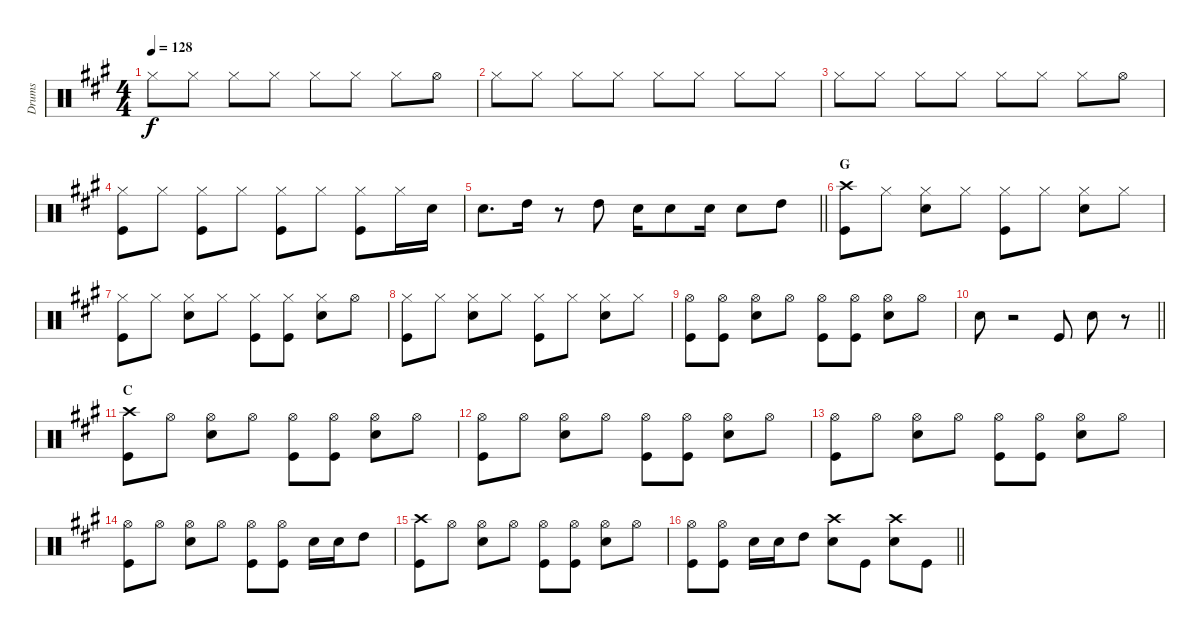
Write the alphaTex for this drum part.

\track ("Drums" "Drums") {instrument percussion}
\staff {score}
\articulation defaults
\ts (4 4)
\tempo 128
\clef neutral
\ks a "Hi-Hat (closed)".8{dy f} "Hi-Hat (closed)".8 "Hi-Hat (closed)".8 "Hi-Hat (closed)".8 "Hi-Hat (closed)".8 "Hi-Hat (closed)".8 "Hi-Hat (closed)".8 "Hi-Hat (open)".8
|
"Hi-Hat (closed)".8 "Hi-Hat (closed)".8 "Hi-Hat (closed)".8 "Hi-Hat (closed)".8 "Hi-Hat (closed)".8 "Hi-Hat (closed)".8 "Hi-Hat (closed)".8 "Hi-Hat (closed)".8 |
"Hi-Hat (closed)".8 "Hi-Hat (closed)".8 "Hi-Hat (closed)".8 "Hi-Hat (closed)".8 "Hi-Hat (closed)".8 "Hi-Hat (closed)".8 "Hi-Hat (closed)".8 "Hi-Hat (open)".8 |
("Hi-Hat (closed)" "Kick (hit)").8 "Hi-Hat (closed)".8 ("Hi-Hat (closed)" "Kick (hit)").8 "Hi-Hat (closed)".8 ("Hi-Hat (closed)" "Kick (hit)").8 "Hi-Hat (closed)".8 ("Hi-Hat (closed)" "Kick (hit)").8 "Hi-Hat (closed)".16 "Snare (hit) 2".16 |
\barLineRight lightlight "Snare (hit) 2".8{d} "High Tom (hit)".16
r.8 "High Tom (hit)".8 "Snare (hit) 2".16 "Snare (hit) 2".8 "Snare (hit) 2".16 "Snare (hit) 2".8 "High Tom (hit)".8 |
\section ("" "G")
("Crash high (hit)" "Kick (hit)").8 "Hi-Hat (closed)".8 ("Hi-Hat (closed)" "Snare (hit) 2").8 "Hi-Hat (closed)".8 ("Hi-Hat (closed)" "Kick (hit)").8 "Hi-Hat (closed)".8 ("Hi-Hat (closed)" "Snare (hit) 2").8 "Hi-Hat (closed)".8 |
("Hi-Hat (closed)" "Kick (hit)").8 "Hi-Hat (closed)".8 ("Hi-Hat (closed)" "Snare (hit) 2").8 "Hi-Hat (closed)".8 ("Hi-Hat (closed)" "Kick (hit)").8 ("Hi-Hat (closed)" "Kick (hit)").8 ("Hi-Hat (closed)" "Snare (hit) 2").8 "Hi-Hat (open)".8 |
("Hi-Hat (closed)" "Kick (hit)").8 "Hi-Hat (closed)".8 ("Hi-Hat (closed)" "Snare (hit) 2").8 "Hi-Hat (closed)".8 ("Hi-Hat (closed)" "Kick (hit)").8 "Hi-Hat (closed)".8 ("Hi-Hat (closed)" "Snare (hit) 2").8 "Hi-Hat (closed)".8 |
("Hi-Hat (open)" "Kick (hit)").8 ("Hi-Hat (open)" "Kick (hit)").8 ("Hi-Hat (open)" "Snare (hit) 2").8 "Hi-Hat (open)".8 ("Hi-Hat (open)" "Kick (hit)").8 ("Hi-Hat (open)" "Kick (hit)").8 ("Hi-Hat (open)" "Snare (hit) 2").8 "Hi-Hat (open)".8 |
\barLineRight lightlight "Snare (hit) 2".8
r.2 "Kick (hit)".8 "Snare (hit) 2".8 r.8 |
\section ("" "C")
("Crash high (hit)" "Kick (hit)").8 "Hi-Hat (open)".8 ("Hi-Hat (open)" "Snare (hit) 2").8 "Hi-Hat (open)".8 ("Hi-Hat (open)" "Kick (hit)").8 ("Hi-Hat (open)" "Kick (hit)").8 ("Hi-Hat (open)" "Snare (hit) 2").8 "Hi-Hat (open)".8 |
("Hi-Hat (open)" "Kick (hit)").8 "Hi-Hat (open)".8 ("Hi-Hat (open)" "Snare (hit) 2").8 "Hi-Hat (open)".8 ("Hi-Hat (open)" "Kick (hit)").8 ("Hi-Hat (open)" "Kick (hit)").8 ("Hi-Hat (open)" "Snare (hit) 2").8 "Hi-Hat (open)".8 |
("Hi-Hat (open)" "Kick (hit)").8 "Hi-Hat (open)".8 ("Hi-Hat (open)" "Snare (hit) 2").8 "Hi-Hat (open)".8 ("Hi-Hat (open)" "Kick (hit)").8 ("Hi-Hat (open)" "Kick (hit)").8 ("Hi-Hat (open)" "Snare (hit) 2").8 "Hi-Hat (open)".8 |
("Hi-Hat (open)" "Kick (hit)").8 "Hi-Hat (open)".8 ("Hi-Hat (open)" "Snare (hit) 2").8 "Hi-Hat (open)".8 ("Hi-Hat (open)" "Kick (hit)").8 ("Hi-Hat (open)" "Kick (hit)").8 "Snare (hit) 2".16 "Snare (hit) 2".16 "High Tom (hit)".8 |
("Crash high (hit)" "Kick (hit)").8 "Hi-Hat (open)".8 ("Hi-Hat (open)" "Snare (hit) 2").8 "Hi-Hat (open)".8 ("Hi-Hat (open)" "Kick (hit)").8 ("Hi-Hat (open)" "Kick (hit)").8 ("Hi-Hat (open)" "Snare (hit) 2").8 "Hi-Hat (open)".8 |
\barLineRight lightlight
("Hi-Hat (open)" "Kick (hit)").8 ("Hi-Hat (open)" "Kick (hit)").8 "Snare (hit) 2".16 "Snare (hit) 2".16 "High Tom (hit)".8 ("Crash high (hit)" "Snare (hit) 2").8 "Kick (hit)".8 ("Crash high (hit)" "Snare (hit) 2").8 "Kick (hit)".8
